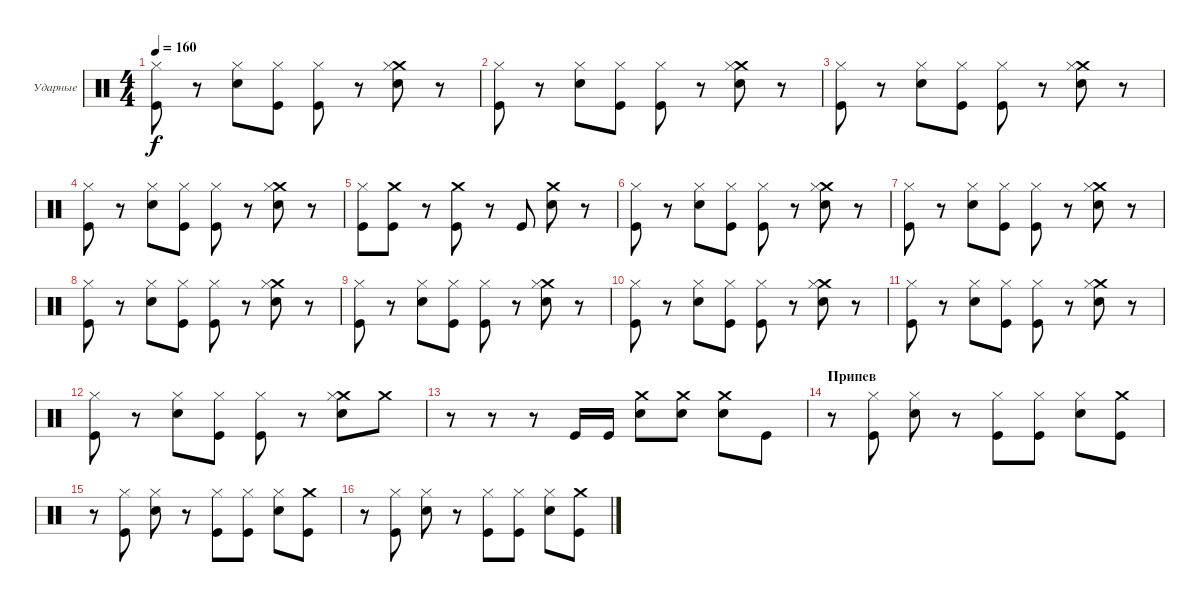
\bracketExtendMode groupsimilarinstruments
\firstSystemTrackNameOrientation horizontal
\otherSystemsTrackNameOrientation horizontal
\track ("Александр Львов" "Ударные") {instrument percussion}
\staff {score}
\articulation defaults
\ts (4 4)
\tempo 160
\clef neutral
\ks c
("Kick (hit)" "Hi-Hat (closed)").8{dy f} r.8 ("Snare (hit) 2" "Hi-Hat (closed)").8 ("Kick (hit)" "Hi-Hat (closed)").8 ("Kick (hit)" "Hi-Hat (closed)").8 r.8 ("Snare (hit) 2" "Crash medium (hit)" "Hi-Hat (closed)").8 r.8 |
("Kick (hit)" "Hi-Hat (closed)").8 r.8 ("Snare (hit) 2" "Hi-Hat (closed)").8 ("Kick (hit)" "Hi-Hat (closed)").8 ("Kick (hit)" "Hi-Hat (closed)").8 r.8 ("Snare (hit) 2" "Crash medium (hit)" "Hi-Hat (closed)").8 r.8 |
("Kick (hit)" "Hi-Hat (closed)").8 r.8 ("Snare (hit) 2" "Hi-Hat (closed)").8 ("Kick (hit)" "Hi-Hat (closed)").8 ("Kick (hit)" "Hi-Hat (closed)").8 r.8 ("Snare (hit) 2" "Crash medium (hit)" "Hi-Hat (closed)").8 r.8 |
("Kick (hit)" "Hi-Hat (closed)").8 r.8 ("Snare (hit) 2" "Hi-Hat (closed)").8 ("Kick (hit)" "Hi-Hat (closed)").8 ("Kick (hit)" "Hi-Hat (closed)").8 r.8 ("Snare (hit) 2" "Crash medium (hit)" "Hi-Hat (closed)").8 r.8 |
("Kick (hit)" "Hi-Hat (closed)").8 ("Kick (hit)" "Crash medium (hit)").8 r.8 ("Kick (hit)" "Crash medium (hit)").8 r.8 "Kick (hit)".8 ("Snare (hit) 2" "Crash medium (hit)").8 r.8 |
("Kick (hit)" "Hi-Hat (closed)").8 r.8 ("Snare (hit) 2" "Hi-Hat (closed)").8 ("Kick (hit)" "Hi-Hat (closed)").8 ("Kick (hit)" "Hi-Hat (closed)").8 r.8 ("Snare (hit) 2" "Crash medium (hit)" "Hi-Hat (closed)").8 r.8 |
("Kick (hit)" "Hi-Hat (closed)").8 r.8 ("Snare (hit) 2" "Hi-Hat (closed)").8 ("Kick (hit)" "Hi-Hat (closed)").8 ("Kick (hit)" "Hi-Hat (closed)").8 r.8 ("Snare (hit) 2" "Crash medium (hit)" "Hi-Hat (closed)").8 r.8 |
("Kick (hit)" "Hi-Hat (closed)").8 r.8 ("Snare (hit) 2" "Hi-Hat (closed)").8 ("Kick (hit)" "Hi-Hat (closed)").8 ("Kick (hit)" "Hi-Hat (closed)").8 r.8 ("Snare (hit) 2" "Crash medium (hit)" "Hi-Hat (closed)").8 r.8 |
("Kick (hit)" "Hi-Hat (closed)").8 r.8 ("Snare (hit) 2" "Hi-Hat (closed)").8 ("Kick (hit)" "Hi-Hat (closed)").8 ("Kick (hit)" "Hi-Hat (closed)").8 r.8 ("Snare (hit) 2" "Crash medium (hit)" "Hi-Hat (closed)").8 r.8 |
("Kick (hit)" "Hi-Hat (closed)").8 r.8 ("Snare (hit) 2" "Hi-Hat (closed)").8 ("Kick (hit)" "Hi-Hat (closed)").8 ("Kick (hit)" "Hi-Hat (closed)").8 r.8 ("Snare (hit) 2" "Crash medium (hit)" "Hi-Hat (closed)").8 r.8 |
("Kick (hit)" "Hi-Hat (closed)").8 r.8 ("Snare (hit) 2" "Hi-Hat (closed)").8 ("Kick (hit)" "Hi-Hat (closed)").8 ("Kick (hit)" "Hi-Hat (closed)").8 r.8 ("Snare (hit) 2" "Crash medium (hit)" "Hi-Hat (closed)").8 r.8 |
("Kick (hit)" "Hi-Hat (closed)").8 r.8 ("Snare (hit) 2" "Hi-Hat (closed)").8 ("Kick (hit)" "Hi-Hat (closed)").8 ("Kick (hit)" "Hi-Hat (closed)").8 r.8 ("Snare (hit) 2" "Crash medium (hit)" "Hi-Hat (closed)").8 "Crash medium (hit)".8 |
r.8 r.8 r.8 "Kick (hit)".16 "Kick (hit)".16 ("Snare (hit) 2" "Crash medium (hit)").8 ("Snare (hit) 2" "Crash medium (hit)").8 ("Snare (hit) 2" "Crash medium (hit)").8 "Kick (hit)".8 |
\section ("" "Припев")
r.8 ("Kick (hit)" "Hi-Hat (closed)").8 ("Snare (hit) 2" "Hi-Hat (closed)").8 r.8 ("Kick (hit)" "Hi-Hat (closed)").8 ("Kick (hit)" "Hi-Hat (closed)").8 ("Snare (hit) 2" "Hi-Hat (closed)").8 ("Kick (hit)" "Crash medium (hit)").8 |
r.8 ("Kick (hit)" "Hi-Hat (closed)").8 ("Snare (hit) 2" "Hi-Hat (closed)").8 r.8 ("Kick (hit)" "Hi-Hat (closed)").8 ("Kick (hit)" "Hi-Hat (closed)").8 ("Snare (hit) 2" "Hi-Hat (closed)").8 ("Kick (hit)" "Crash medium (hit)").8 |
r.8 ("Kick (hit)" "Hi-Hat (closed)").8 ("Snare (hit) 2" "Hi-Hat (closed)").8 r.8 ("Kick (hit)" "Hi-Hat (closed)").8 ("Kick (hit)" "Hi-Hat (closed)").8 ("Snare (hit) 2" "Hi-Hat (closed)").8 ("Kick (hit)" "Crash medium (hit)").8
